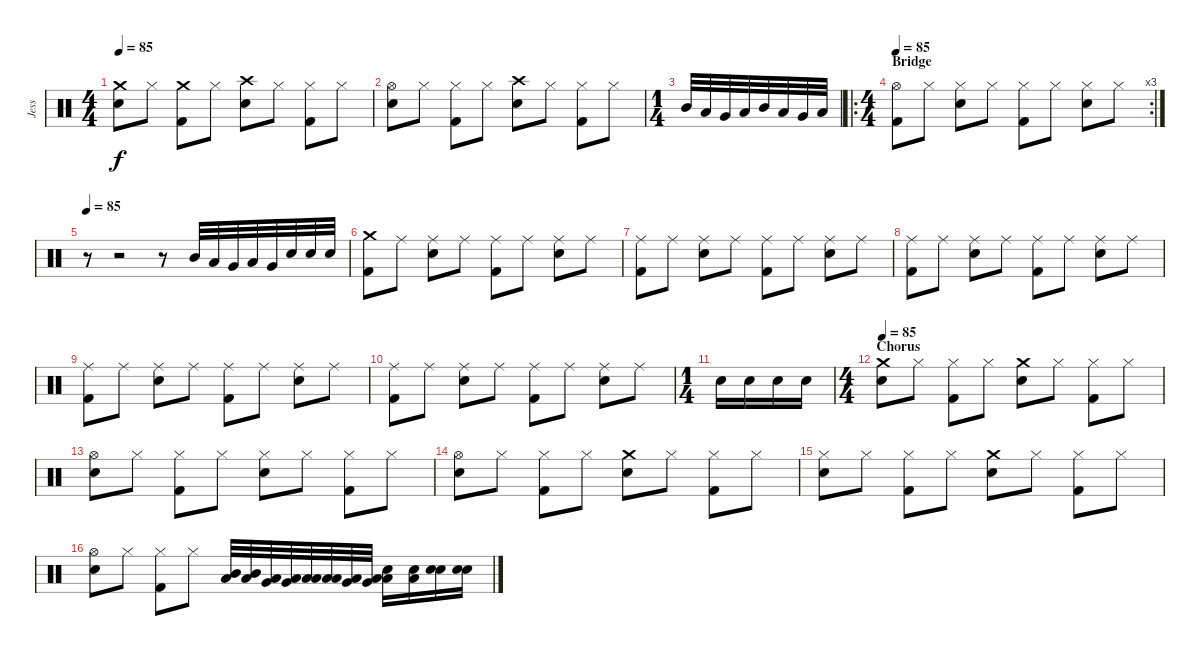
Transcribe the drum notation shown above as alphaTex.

\track ("Jess" "Jess") {instrument percussion}
\staff {score}
\articulation defaults
\ts (4 4)
\tempo 85
\clef neutral
\ks c
("Crash medium (hit)" "Snare (hit) 2").8{dy f} "Hi-Hat (closed)".8 ("Crash medium (hit)" "Kick (hit) 2").8 "Hi-Hat (closed)".8 ("Crash high (hit)" "Snare (hit) 2").8 "Hi-Hat (closed)".8 ("Hi-Hat (closed)" "Kick (hit) 2").8 "Hi-Hat (closed)".8 |
("Hi-Hat (open)" "Snare (hit) 2").8 "Hi-Hat (closed)".8 ("Hi-Hat (closed)" "Kick (hit) 2").8 "Hi-Hat (closed)".8 ("Crash high (hit)" "Snare (hit) 2").8 "Hi-Hat (closed)".8 ("Hi-Hat (closed)" "Kick (hit) 2").8 "Hi-Hat (closed)".8 |
\ts (1 4)
"Mid Tom (hit)".32 "Low Tom (hit)".32 "Very Low Tom (hit)".32 "Low Tom (hit)".32 "Mid Tom (hit)".32 "Low Tom (hit)".32 "Very Low Tom (hit)".32 "Low Tom (hit)".32 |
\ro
\rc 3
\ts (4 4)
\section ("" "Bridge")
\tempo 80
\tempo 85
("Hi-Hat (open)" "Kick (hit) 2").8 "Hi-Hat (closed)".8 ("Hi-Hat (closed)" "Snare (hit) 2").8 "Hi-Hat (closed)".8 ("Hi-Hat (closed)" "Kick (hit) 2").8 "Hi-Hat (closed)".8 ("Hi-Hat (closed)" "Snare (hit) 2").8 "Hi-Hat (closed)".8 |
\tempo 80
\tempo 85
r.8 r.2 r.8 "Mid Tom (hit)".32 "Low Tom (hit)".32 "Very Low Tom (hit)".32 "Low Floor Tom (hit)".32 "Very Low Tom (hit)".32 "Snare (hit) 2".32 "Snare (hit) 2".32 "Snare (hit) 2".32 |
("Crash medium (hit)" "Kick (hit) 2").8 "Ride (middle)".8 ("Ride (middle)" "Snare (hit) 2").8 "Ride (middle)".8 ("Ride (middle)" "Kick (hit) 2").8 "Ride (middle)".8 ("Ride (middle)" "Snare (hit) 2").8 "Ride (middle)".8 |
("Ride (middle)" "Kick (hit) 2").8 "Ride (middle)".8 ("Ride (middle)" "Snare (hit) 2").8 "Ride (middle)".8 ("Ride (middle)" "Kick (hit) 2").8 "Ride (middle)".8 ("Ride (middle)" "Snare (hit) 2").8 "Ride (middle)".8 |
("Ride (middle)" "Kick (hit) 2").8 "Ride (middle)".8 ("Ride (middle)" "Snare (hit) 2").8 "Ride (middle)".8 ("Ride (middle)" "Kick (hit) 2").8 "Ride (middle)".8 ("Ride (middle)" "Snare (hit) 2").8 "Ride (middle)".8 |
("Ride (middle)" "Kick (hit) 2").8 "Ride (middle)".8 ("Ride (middle)" "Snare (hit) 2").8 "Ride (middle)".8 ("Ride (middle)" "Kick (hit) 2").8 "Ride (middle)".8 ("Ride (middle)" "Snare (hit) 2").8 "Ride (middle)".8 |
("Ride (middle)" "Kick (hit) 2").8 "Ride (middle)".8 ("Ride (middle)" "Snare (hit) 2").8 "Ride (middle)".8 ("Ride (middle)" "Kick (hit) 2").8 "Ride (middle)".8 ("Ride (middle)" "Snare (hit) 2").8 "Ride (middle)".8 |
\ts (1 4)
"Snare (hit) 2".16 "Snare (hit) 2".16 "Snare (hit) 2".16 "Snare (hit) 2".16 |
\ts (4 4)
\section ("" "Chorus")
\tempo 85
("Crash medium (hit)" "Snare (hit) 2").8 "Hi-Hat (closed)".8 ("Hi-Hat (closed)" "Kick (hit) 2").8 "Hi-Hat (closed)".8 ("Crash medium (hit)" "Snare (hit) 2").8 "Hi-Hat (closed)".8 ("Hi-Hat (closed)" "Kick (hit) 2").8 "Hi-Hat (closed)".8 |
("Hi-Hat (open)" "Snare (hit) 2").8 "Hi-Hat (closed)".8 ("Hi-Hat (closed)" "Kick (hit) 2").8 "Hi-Hat (closed)".8 ("Hi-Hat (closed)" "Snare (hit) 2").8 "Hi-Hat (closed)".8 ("Hi-Hat (closed)" "Kick (hit) 2").8 "Hi-Hat (closed)".8 |
("Hi-Hat (open)" "Snare (hit) 2").8 "Hi-Hat (closed)".8 ("Hi-Hat (closed)" "Kick (hit) 2").8 "Hi-Hat (closed)".8 ("Crash medium (hit)" "Snare (hit) 2").8 "Hi-Hat (closed)".8 ("Hi-Hat (closed)" "Kick (hit) 2").8 "Hi-Hat (closed)".8 |
("Hi-Hat (closed)" "Snare (hit) 2").8 "Hi-Hat (closed)".8 ("Hi-Hat (closed)" "Kick (hit) 2").8 "Hi-Hat (closed)".8 ("Crash medium (hit)" "Snare (hit) 2").8 "Hi-Hat (closed)".8 ("Hi-Hat (closed)" "Kick (hit) 2").8 "Hi-Hat (closed)".8 |
("Hi-Hat (open)" "Snare (hit) 2").8 "Hi-Hat (closed)".8 ("Hi-Hat (closed)" "Kick (hit) 2").8 "Hi-Hat (closed)".8 ("Low Tom (hit)" "Mid Tom (hit)").32 ("Mid Tom (hit)" "Low Tom (hit)").32 ("Very Low Tom (hit)" "Low Tom (hit)").32 ("Very Low Tom (hit)" "Low Tom (hit)").32 ("Low Floor Tom (hit)" "Low Tom (hit)").32 ("Low Floor Tom (hit)" "Low Tom (hit)").32 ("Low Floor Tom (hit)" "Very Low Tom (hit)").32 ("Low Floor Tom (hit)" "Very Low Tom (hit)").32 ("Low Floor Tom (hit)" "Snare (hit) 2").16 ("Low Floor Tom (hit)" "Snare (hit) 2").16 ("Snare (hit) 2" "Snare (hit) 2").16 ("Snare (hit) 2" "Snare (hit) 2").16
